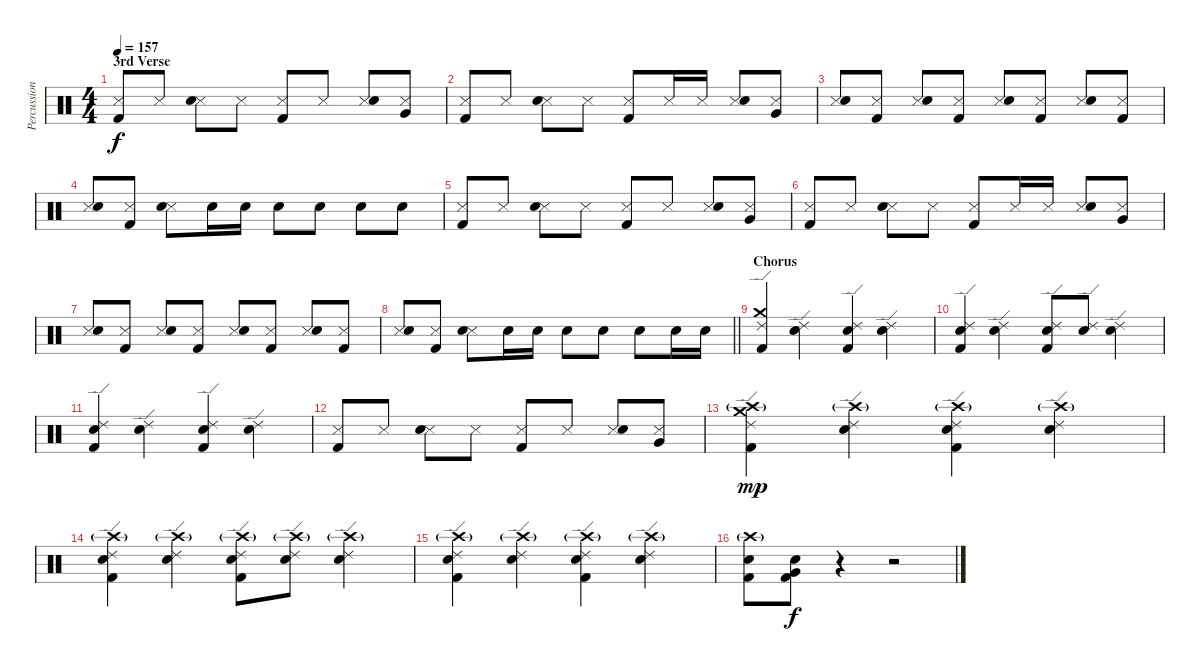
\track ("Percussion" "Percussion") {instrument percussion}
\staff {score}
\articulation defaults
\ts (4 4)
\section ("" "3rd Verse")
\tempo 157
\clef neutral
\ks c
("Metronome (hit)" "Kick (hit) 2").8{dy f} "Metronome (hit)".8 ("Metronome (hit)" "Snare (hit) 2").8 "Metronome (hit)".8 ("Metronome (hit)" "Kick (hit) 2").8 "Metronome (hit)".8 ("Metronome (hit)" "Snare (hit) 2").8 ("Metronome (hit)" "Very Low Tom (hit)").8 |
("Metronome (hit)" "Kick (hit) 2").8 "Metronome (hit)".8 ("Metronome (hit)" "Snare (hit) 2").8 "Metronome (hit)".8 ("Metronome (hit)" "Kick (hit) 2").8 "Metronome (hit)".16 "Metronome (hit)".16 ("Metronome (hit)" "Snare (hit) 2").8 ("Metronome (hit)" "Very Low Tom (hit)").8 |
("Metronome (hit)" "Snare (hit) 2").8 ("Metronome (hit)" "Kick (hit) 2").8 ("Metronome (hit)" "Snare (hit) 2").8 ("Metronome (hit)" "Kick (hit) 2").8 ("Metronome (hit)" "Snare (hit) 2").8 ("Metronome (hit)" "Kick (hit) 2").8 ("Metronome (hit)" "Snare (hit) 2").8 ("Metronome (hit)" "Kick (hit) 2").8 |
("Metronome (hit)" "Snare (hit) 2").8 ("Metronome (hit)" "Kick (hit) 2").8 ("Metronome (hit)" "Snare (hit) 2").8 "Snare (hit) 2".16 "Snare (hit) 2".16 "Snare (hit) 2".8 "Snare (hit) 2".8 "Snare (hit) 2".8 "Snare (hit) 2".8 |
("Metronome (hit)" "Kick (hit) 2").8 "Metronome (hit)".8 ("Metronome (hit)" "Snare (hit) 2").8 "Metronome (hit)".8 ("Metronome (hit)" "Kick (hit) 2").8 "Metronome (hit)".8 ("Metronome (hit)" "Snare (hit) 2").8 ("Metronome (hit)" "Very Low Tom (hit)").8 |
("Metronome (hit)" "Kick (hit) 2").8 "Metronome (hit)".8 ("Metronome (hit)" "Snare (hit) 2").8 "Metronome (hit)".8 ("Metronome (hit)" "Kick (hit) 2").8 "Metronome (hit)".16 "Metronome (hit)".16 ("Metronome (hit)" "Snare (hit) 2").8 ("Metronome (hit)" "Very Low Tom (hit)").8 |
("Metronome (hit)" "Snare (hit) 2").8 ("Metronome (hit)" "Kick (hit) 2").8 ("Metronome (hit)" "Snare (hit) 2").8 ("Metronome (hit)" "Kick (hit) 2").8 ("Metronome (hit)" "Snare (hit) 2").8 ("Metronome (hit)" "Kick (hit) 2").8 ("Metronome (hit)" "Snare (hit) 2").8 ("Metronome (hit)" "Kick (hit) 2").8 |
\barLineRight lightlight
("Metronome (hit)" "Snare (hit) 2").8 ("Metronome (hit)" "Kick (hit) 2").8 ("Metronome (hit)" "Snare (hit) 2").8 "Snare (hit) 2".16 "Snare (hit) 2".16 "Snare (hit) 2".8 "Snare (hit) 2".8 "Snare (hit) 2".8 "Snare (hit) 2".16 "Snare (hit) 2".16 |
\section ("" "Chorus")
("Crash medium (hit)" "Ride (edge) 2" "Kick (hit) 2").4 ("Ride (edge) 2" "Snare (hit) 2").4 ("Ride (edge) 2" "Snare (hit) 2" "Kick (hit) 2").4 ("Ride (edge) 2" "Snare (hit) 2").4 |
("Ride (edge) 2" "Snare (hit) 2" "Kick (hit) 2").4 ("Ride (edge) 2" "Snare (hit) 2").4 ("Ride (edge) 2" "Snare (hit) 2" "Kick (hit) 2").8 ("Ride (edge) 2" "Snare (hit) 2").8 ("Ride (edge) 2" "Snare (hit) 2").4 |
("Ride (edge) 2" "Snare (hit) 2" "Kick (hit) 2").4 ("Ride (edge) 2" "Snare (hit) 2").4 ("Ride (edge) 2" "Snare (hit) 2" "Kick (hit) 2").4 ("Ride (edge) 2" "Snare (hit) 2").4 |
("Metronome (hit)" "Kick (hit) 2").8 "Metronome (hit)".8 ("Metronome (hit)" "Snare (hit) 2").8 "Metronome (hit)".8 ("Metronome (hit)" "Kick (hit) 2").8 "Metronome (hit)".8 ("Metronome (hit)" "Snare (hit) 2").8 ("Metronome (hit)" "Very Low Tom (hit)").8 |
("Crash medium (hit)" "Ride (edge) 2" "Crash high (hit)"{g} "Kick (hit) 2").4{dy mp} ("Ride (edge) 2" "Crash high (hit)"{g} "Snare (hit) 2").4 ("Ride (edge) 2" "Crash high (hit)"{g} "Snare (hit) 2" "Kick (hit) 2").4 ("Ride (edge) 2" "Crash high (hit)"{g} "Snare (hit) 2").4 |
("Ride (edge) 2" "Crash high (hit)"{g} "Snare (hit) 2" "Kick (hit) 2").4 ("Ride (edge) 2" "Crash high (hit)"{g} "Snare (hit) 2").4 ("Ride (edge) 2" "Crash high (hit)"{g} "Snare (hit) 2" "Kick (hit) 2").8 ("Ride (edge) 2" "Crash high (hit)"{g} "Snare (hit) 2").8 ("Ride (edge) 2" "Crash high (hit)"{g} "Snare (hit) 2").4 |
("Ride (edge) 2" "Crash high (hit)"{g} "Snare (hit) 2" "Kick (hit) 2").4 ("Ride (edge) 2" "Crash high (hit)"{g} "Snare (hit) 2").4 ("Ride (edge) 2" "Crash high (hit)"{g} "Snare (hit) 2" "Kick (hit) 2").4 ("Ride (edge) 2" "Crash high (hit)"{g} "Snare (hit) 2").4 |
("Crash high (hit)"{g} "Snare (hit) 2" "Kick (hit) 2").8 ("Very Low Tom (hit)" "Snare (hit) 2" "Kick (hit) 2").8{dy f} r.4 r.2
